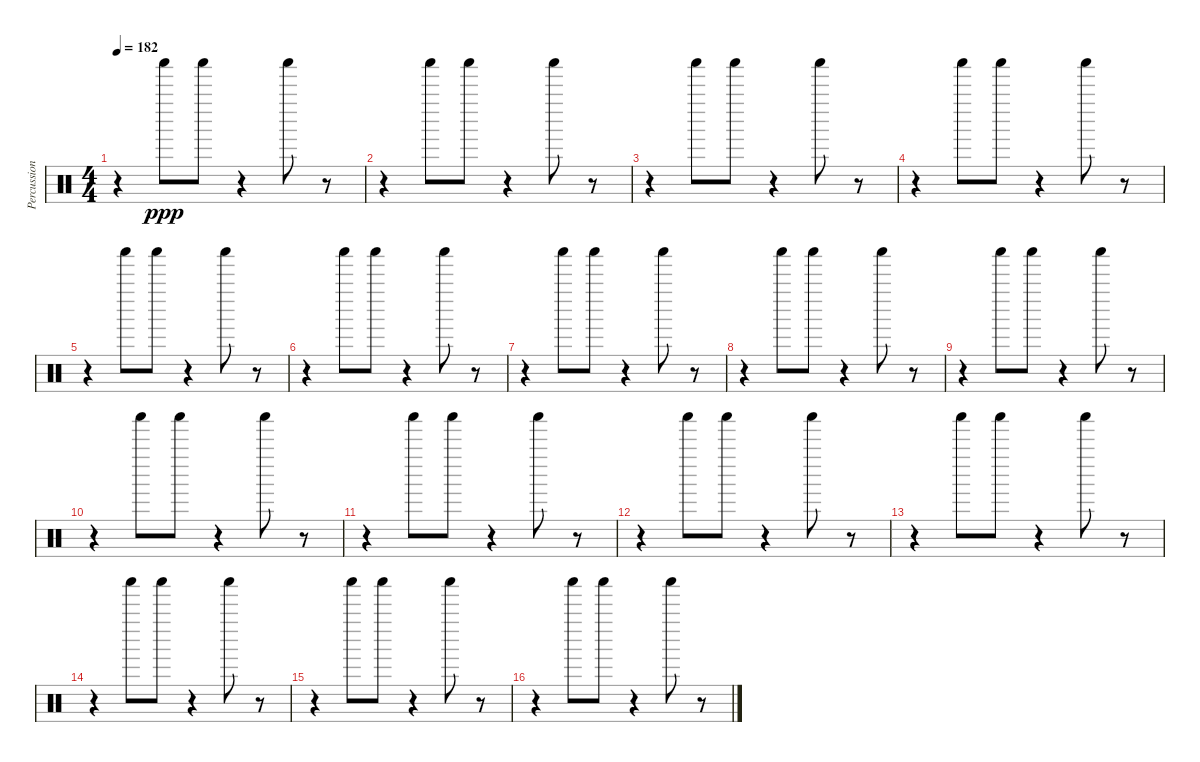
\track ("Percussion2" "Percussion") {instrument percussion}
\staff {score}
\articulation defaults
\ts (4 4)
\tempo 182
\clef neutral
\ks c
r.4{dy ppp} "Shaker (hit)".8 "Shaker (hit)".8 r.4 "Shaker (hit)".8 r.8 |
r.4 "Shaker (hit)".8 "Shaker (hit)".8 r.4 "Shaker (hit)".8 r.8 |
r.4 "Shaker (hit)".8 "Shaker (hit)".8 r.4 "Shaker (hit)".8 r.8 |
r.4 "Shaker (hit)".8 "Shaker (hit)".8 r.4 "Shaker (hit)".8 r.8 |
r.4 "Shaker (hit)".8 "Shaker (hit)".8 r.4 "Shaker (hit)".8 r.8 |
r.4 "Shaker (hit)".8 "Shaker (hit)".8 r.4 "Shaker (hit)".8 r.8 |
r.4 "Shaker (hit)".8 "Shaker (hit)".8 r.4 "Shaker (hit)".8 r.8 |
r.4 "Shaker (hit)".8 "Shaker (hit)".8 r.4 "Shaker (hit)".8 r.8 |
r.4 "Shaker (hit)".8 "Shaker (hit)".8 r.4 "Shaker (hit)".8 r.8 |
r.4 "Shaker (hit)".8 "Shaker (hit)".8 r.4 "Shaker (hit)".8 r.8 |
r.4 "Shaker (hit)".8 "Shaker (hit)".8 r.4 "Shaker (hit)".8 r.8 |
r.4 "Shaker (hit)".8 "Shaker (hit)".8 r.4 "Shaker (hit)".8 r.8 |
r.4 "Shaker (hit)".8 "Shaker (hit)".8 r.4 "Shaker (hit)".8 r.8 |
r.4 "Shaker (hit)".8 "Shaker (hit)".8 r.4 "Shaker (hit)".8 r.8 |
r.4 "Shaker (hit)".8 "Shaker (hit)".8 r.4 "Shaker (hit)".8 r.8 |
r.4 "Shaker (hit)".8 "Shaker (hit)".8 r.4 "Shaker (hit)".8 r.8
